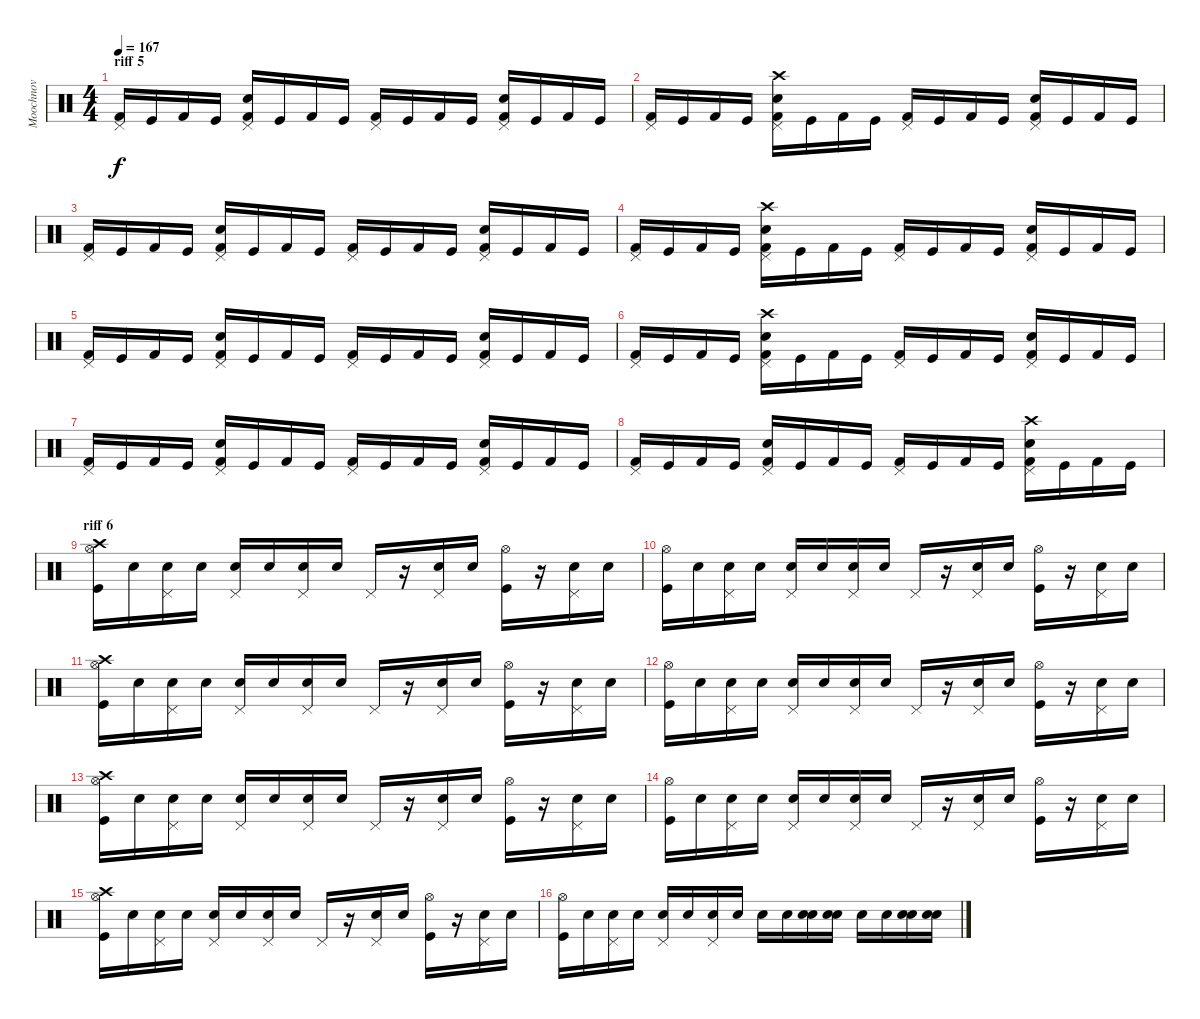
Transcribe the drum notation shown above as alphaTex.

\track ("Moochnov" "Moochnov") {instrument percussion}
\staff {score}
\articulation defaults
\ts (4 4)
\section ("" "riff 5")
\tempo 167
\clef neutral
\ks c
("Kick (hit) 2" "Pedal Hi-Hat (hit)").16{dy f} "Kick (hit)".16 "Kick (hit) 2".16 "Kick (hit)".16 ("Kick (hit) 2" "Snare (hit) 2" "Pedal Hi-Hat (hit)").16 "Kick (hit)".16 "Kick (hit) 2".16 "Kick (hit)".16 ("Kick (hit) 2" "Pedal Hi-Hat (hit)").16 "Kick (hit)".16 "Kick (hit) 2".16 "Kick (hit)".16 ("Kick (hit) 2" "Snare (hit) 2" "Pedal Hi-Hat (hit)").16 "Kick (hit)".16 "Kick (hit) 2".16 "Kick (hit)".16 |
("Kick (hit) 2" "Pedal Hi-Hat (hit)").16 "Kick (hit)".16 "Kick (hit) 2".16 "Kick (hit)".16 ("Kick (hit) 2" "Snare (hit) 2" "Pedal Hi-Hat (hit)" "Crash high (hit)").16 "Kick (hit)".16 "Kick (hit) 2".16 "Kick (hit)".16 ("Kick (hit) 2" "Pedal Hi-Hat (hit)").16 "Kick (hit)".16 "Kick (hit) 2".16 "Kick (hit)".16 ("Kick (hit) 2" "Snare (hit) 2" "Pedal Hi-Hat (hit)").16 "Kick (hit)".16 "Kick (hit) 2".16 "Kick (hit)".16 |
("Kick (hit) 2" "Pedal Hi-Hat (hit)").16 "Kick (hit)".16 "Kick (hit) 2".16 "Kick (hit)".16 ("Kick (hit) 2" "Snare (hit) 2" "Pedal Hi-Hat (hit)").16 "Kick (hit)".16 "Kick (hit) 2".16 "Kick (hit)".16 ("Kick (hit) 2" "Pedal Hi-Hat (hit)").16 "Kick (hit)".16 "Kick (hit) 2".16 "Kick (hit)".16 ("Kick (hit) 2" "Snare (hit) 2" "Pedal Hi-Hat (hit)").16 "Kick (hit)".16 "Kick (hit) 2".16 "Kick (hit)".16 |
("Kick (hit) 2" "Pedal Hi-Hat (hit)").16 "Kick (hit)".16 "Kick (hit) 2".16 "Kick (hit)".16 ("Kick (hit) 2" "Snare (hit) 2" "Pedal Hi-Hat (hit)" "Crash high (hit)").16 "Kick (hit)".16 "Kick (hit) 2".16 "Kick (hit)".16 ("Kick (hit) 2" "Pedal Hi-Hat (hit)").16 "Kick (hit)".16 "Kick (hit) 2".16 "Kick (hit)".16 ("Kick (hit) 2" "Snare (hit) 2" "Pedal Hi-Hat (hit)").16 "Kick (hit)".16 "Kick (hit) 2".16 "Kick (hit)".16 |
("Kick (hit) 2" "Pedal Hi-Hat (hit)").16 "Kick (hit)".16 "Kick (hit) 2".16 "Kick (hit)".16 ("Kick (hit) 2" "Snare (hit) 2" "Pedal Hi-Hat (hit)").16 "Kick (hit)".16 "Kick (hit) 2".16 "Kick (hit)".16 ("Kick (hit) 2" "Pedal Hi-Hat (hit)").16 "Kick (hit)".16 "Kick (hit) 2".16 "Kick (hit)".16 ("Kick (hit) 2" "Snare (hit) 2" "Pedal Hi-Hat (hit)").16 "Kick (hit)".16 "Kick (hit) 2".16 "Kick (hit)".16 |
("Kick (hit) 2" "Pedal Hi-Hat (hit)").16 "Kick (hit)".16 "Kick (hit) 2".16 "Kick (hit)".16 ("Kick (hit) 2" "Snare (hit) 2" "Pedal Hi-Hat (hit)" "Crash high (hit)").16 "Kick (hit)".16 "Kick (hit) 2".16 "Kick (hit)".16 ("Kick (hit) 2" "Pedal Hi-Hat (hit)").16 "Kick (hit)".16 "Kick (hit) 2".16 "Kick (hit)".16 ("Kick (hit) 2" "Snare (hit) 2" "Pedal Hi-Hat (hit)").16 "Kick (hit)".16 "Kick (hit) 2".16 "Kick (hit)".16 |
("Kick (hit) 2" "Pedal Hi-Hat (hit)").16 "Kick (hit)".16 "Kick (hit) 2".16 "Kick (hit)".16 ("Kick (hit) 2" "Snare (hit) 2" "Pedal Hi-Hat (hit)").16 "Kick (hit)".16 "Kick (hit) 2".16 "Kick (hit)".16 ("Kick (hit) 2" "Pedal Hi-Hat (hit)").16 "Kick (hit)".16 "Kick (hit) 2".16 "Kick (hit)".16 ("Kick (hit) 2" "Snare (hit) 2" "Pedal Hi-Hat (hit)").16 "Kick (hit)".16 "Kick (hit) 2".16 "Kick (hit)".16 |
("Kick (hit) 2" "Pedal Hi-Hat (hit)").16 "Kick (hit)".16 "Kick (hit) 2".16 "Kick (hit)".16 ("Kick (hit) 2" "Snare (hit) 2" "Pedal Hi-Hat (hit)").16 "Kick (hit)".16 "Kick (hit) 2".16 "Kick (hit)".16 ("Kick (hit) 2" "Pedal Hi-Hat (hit)").16 "Kick (hit)".16 "Kick (hit) 2".16 "Kick (hit)".16 ("Kick (hit) 2" "Snare (hit) 2" "Pedal Hi-Hat (hit)" "Crash high (hit)").16 "Kick (hit)".16 "Kick (hit) 2".16 "Kick (hit)".16 |
\section ("" "riff 6")
("Kick (hit)" "Hi-Hat (open)" "Crash high (hit)").16 "Snare (hit)"{x}.16 ("Snare (hit)"{x} "Pedal Hi-Hat (hit)").16 "Snare (hit)"{x}.16 ("Snare (hit)"{x} "Pedal Hi-Hat (hit)").16 "Snare (hit)"{x}.16 ("Snare (hit) 2" "Pedal Hi-Hat (hit)").16 "Snare (hit)"{x}.16 "Pedal Hi-Hat (hit)".16 r.16 ("Snare (hit)"{x} "Pedal Hi-Hat (hit)").16 "Snare (hit)"{x}.16 ("Kick (hit)" "Hi-Hat (open)").16 r.16 ("Snare (hit)"{x} "Pedal Hi-Hat (hit)").16 "Snare (hit)"{x}.16 |
("Kick (hit)" "Hi-Hat (open)").16 "Snare (hit)"{x}.16 ("Snare (hit)"{x} "Pedal Hi-Hat (hit)").16 "Snare (hit)"{x}.16 ("Snare (hit)"{x} "Pedal Hi-Hat (hit)").16 "Snare (hit)"{x}.16 ("Snare (hit) 2" "Pedal Hi-Hat (hit)").16 "Snare (hit)"{x}.16 "Pedal Hi-Hat (hit)".16 r.16 ("Snare (hit)"{x} "Pedal Hi-Hat (hit)").16 "Snare (hit)"{x}.16 ("Kick (hit)" "Hi-Hat (open)").16 r.16 ("Snare (hit)"{x} "Pedal Hi-Hat (hit)").16 "Snare (hit)"{x}.16 |
("Kick (hit)" "Hi-Hat (open)" "Crash high (hit)").16 "Snare (hit)"{x}.16 ("Snare (hit)"{x} "Pedal Hi-Hat (hit)").16 "Snare (hit)"{x}.16 ("Snare (hit)"{x} "Pedal Hi-Hat (hit)").16 "Snare (hit)"{x}.16 ("Snare (hit) 2" "Pedal Hi-Hat (hit)").16 "Snare (hit)"{x}.16 "Pedal Hi-Hat (hit)".16 r.16 ("Snare (hit)"{x} "Pedal Hi-Hat (hit)").16 "Snare (hit)"{x}.16 ("Kick (hit)" "Hi-Hat (open)").16 r.16 ("Snare (hit)"{x} "Pedal Hi-Hat (hit)").16 "Snare (hit)"{x}.16 |
("Kick (hit)" "Hi-Hat (open)").16 "Snare (hit)"{x}.16 ("Snare (hit)"{x} "Pedal Hi-Hat (hit)").16 "Snare (hit)"{x}.16 ("Snare (hit)"{x} "Pedal Hi-Hat (hit)").16 "Snare (hit)"{x}.16 ("Snare (hit) 2" "Pedal Hi-Hat (hit)").16 "Snare (hit)"{x}.16 "Pedal Hi-Hat (hit)".16 r.16 ("Snare (hit)"{x} "Pedal Hi-Hat (hit)").16 "Snare (hit)"{x}.16 ("Kick (hit)" "Hi-Hat (open)").16 r.16 ("Snare (hit)"{x} "Pedal Hi-Hat (hit)").16 "Snare (hit)"{x}.16 |
("Kick (hit)" "Hi-Hat (open)" "Crash high (hit)").16 "Snare (hit)"{x}.16 ("Snare (hit)"{x} "Pedal Hi-Hat (hit)").16 "Snare (hit)"{x}.16 ("Snare (hit)"{x} "Pedal Hi-Hat (hit)").16 "Snare (hit)"{x}.16 ("Snare (hit) 2" "Pedal Hi-Hat (hit)").16 "Snare (hit)"{x}.16 "Pedal Hi-Hat (hit)".16 r.16 ("Snare (hit)"{x} "Pedal Hi-Hat (hit)").16 "Snare (hit)"{x}.16 ("Kick (hit)" "Hi-Hat (open)").16 r.16 ("Snare (hit)"{x} "Pedal Hi-Hat (hit)").16 "Snare (hit)"{x}.16 |
("Kick (hit)" "Hi-Hat (open)").16 "Snare (hit)"{x}.16 ("Snare (hit)"{x} "Pedal Hi-Hat (hit)").16 "Snare (hit)"{x}.16 ("Snare (hit)"{x} "Pedal Hi-Hat (hit)").16 "Snare (hit)"{x}.16 ("Snare (hit) 2" "Pedal Hi-Hat (hit)").16 "Snare (hit)"{x}.16 "Pedal Hi-Hat (hit)".16 r.16 ("Snare (hit)"{x} "Pedal Hi-Hat (hit)").16 "Snare (hit)"{x}.16 ("Kick (hit)" "Hi-Hat (open)").16 r.16 ("Snare (hit)"{x} "Pedal Hi-Hat (hit)").16 "Snare (hit)"{x}.16 |
("Kick (hit)" "Hi-Hat (open)" "Crash high (hit)").16 "Snare (hit)"{x}.16 ("Snare (hit)"{x} "Pedal Hi-Hat (hit)").16 "Snare (hit)"{x}.16 ("Snare (hit)"{x} "Pedal Hi-Hat (hit)").16 "Snare (hit)"{x}.16 ("Snare (hit) 2" "Pedal Hi-Hat (hit)").16 "Snare (hit)"{x}.16 "Pedal Hi-Hat (hit)".16 r.16 ("Snare (hit)"{x} "Pedal Hi-Hat (hit)").16 "Snare (hit)"{x}.16 ("Kick (hit)" "Hi-Hat (open)").16 r.16 ("Snare (hit)"{x} "Pedal Hi-Hat (hit)").16 "Snare (hit)"{x}.16 |
("Kick (hit)" "Hi-Hat (open)").16 "Snare (hit)"{x}.16 ("Snare (hit)"{x} "Pedal Hi-Hat (hit)").16 "Snare (hit)"{x}.16 ("Snare (hit)"{x} "Pedal Hi-Hat (hit)").16 "Snare (hit)"{x}.16 ("Snare (hit) 2" "Pedal Hi-Hat (hit)").16 "Snare (hit)"{x}.16 "Snare (hit) 2".16 "Snare (hit) 2".16 ("Snare (hit)"{x} "Snare (hit) 2").16 ("Snare (hit)"{x} "Snare (hit) 2").16 "Snare (hit) 2".16 "Snare (hit) 2".16 ("Snare (hit)"{x} "Snare (hit) 2").16 ("Snare (hit)"{x} "Snare (hit) 2").16
